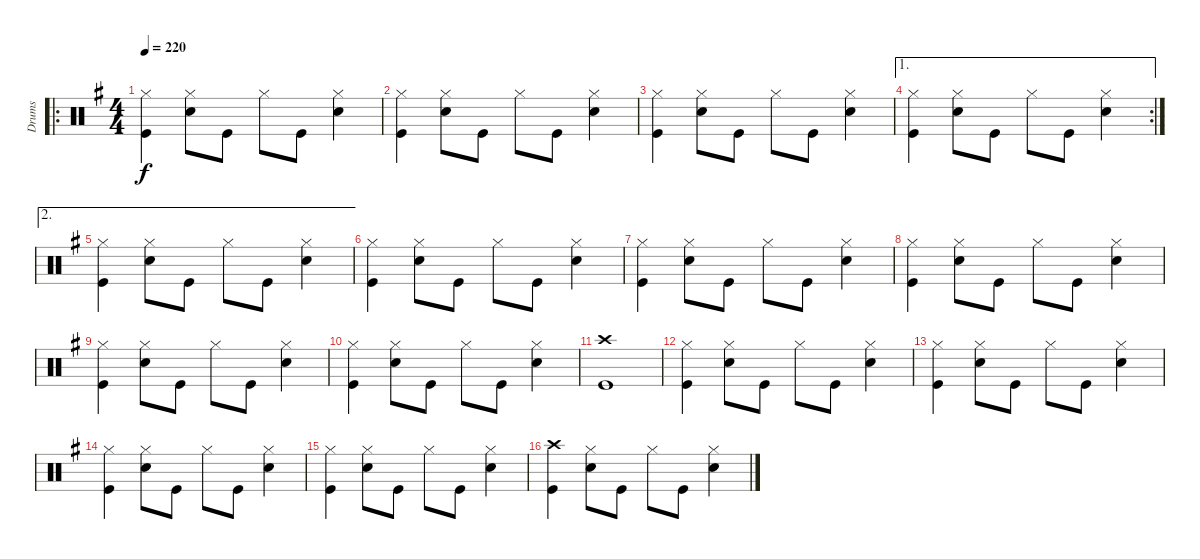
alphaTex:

\track ("Drums" "Drums") {instrument percussion}
\staff {score}
\articulation defaults
\ro
\ts (4 4)
\tempo 220
\clef neutral
\ks g
("Hi-Hat (closed)" "Kick (hit)").4{dy f} ("Hi-Hat (closed)" "Snare (hit) 2").8 "Kick (hit)".8 "Hi-Hat (closed)".8 "Kick (hit)".8 ("Hi-Hat (closed)" "Snare (hit) 2").4 |
("Hi-Hat (closed)" "Kick (hit)").4 ("Hi-Hat (closed)" "Snare (hit) 2").8 "Kick (hit)".8 "Hi-Hat (closed)".8 "Kick (hit)".8 ("Hi-Hat (closed)" "Snare (hit) 2").4 |
("Hi-Hat (closed)" "Kick (hit)").4 ("Hi-Hat (closed)" "Snare (hit) 2").8 "Kick (hit)".8 "Hi-Hat (closed)".8 "Kick (hit)".8 ("Hi-Hat (closed)" "Snare (hit) 2").4 |
\ae 1
\rc 2
("Hi-Hat (closed)" "Kick (hit)").4 ("Hi-Hat (closed)" "Snare (hit) 2").8 "Kick (hit)".8 "Hi-Hat (closed)".8 "Kick (hit)".8 ("Hi-Hat (closed)" "Snare (hit) 2").4 |
\ae 2
("Hi-Hat (closed)" "Kick (hit)").4 ("Hi-Hat (closed)" "Snare (hit) 2").8 "Kick (hit)".8 "Hi-Hat (closed)".8 "Kick (hit)".8 ("Hi-Hat (closed)" "Snare (hit) 2").4 |
("Hi-Hat (closed)" "Kick (hit)").4 ("Hi-Hat (closed)" "Snare (hit) 2").8 "Kick (hit)".8 "Hi-Hat (closed)".8 "Kick (hit)".8 ("Hi-Hat (closed)" "Snare (hit) 2").4 |
("Hi-Hat (closed)" "Kick (hit)").4 ("Hi-Hat (closed)" "Snare (hit) 2").8 "Kick (hit)".8 "Hi-Hat (closed)".8 "Kick (hit)".8 ("Hi-Hat (closed)" "Snare (hit) 2").4 |
("Hi-Hat (closed)" "Kick (hit)").4 ("Hi-Hat (closed)" "Snare (hit) 2").8 "Kick (hit)".8 "Hi-Hat (closed)".8 "Kick (hit)".8 ("Hi-Hat (closed)" "Snare (hit) 2").4 |
("Hi-Hat (closed)" "Kick (hit)").4 ("Hi-Hat (closed)" "Snare (hit) 2").8 "Kick (hit)".8 "Hi-Hat (closed)".8 "Kick (hit)".8 ("Hi-Hat (closed)" "Snare (hit) 2").4 |
("Hi-Hat (closed)" "Kick (hit)").4 ("Hi-Hat (closed)" "Snare (hit) 2").8 "Kick (hit)".8 "Hi-Hat (closed)".8 "Kick (hit)".8 ("Hi-Hat (closed)" "Snare (hit) 2").4 |
("Crash high (hit)" "Kick (hit)").1 |
("Hi-Hat (closed)" "Kick (hit)").4 ("Hi-Hat (closed)" "Snare (hit) 2").8 "Kick (hit)".8 "Hi-Hat (closed)".8 "Kick (hit)".8 ("Hi-Hat (closed)" "Snare (hit) 2").4 |
("Hi-Hat (closed)" "Kick (hit)").4 ("Hi-Hat (closed)" "Snare (hit) 2").8 "Kick (hit)".8 "Hi-Hat (closed)".8 "Kick (hit)".8 ("Hi-Hat (closed)" "Snare (hit) 2").4 |
("Hi-Hat (closed)" "Kick (hit)").4 ("Hi-Hat (closed)" "Snare (hit) 2").8 "Kick (hit)".8 "Hi-Hat (closed)".8 "Kick (hit)".8 ("Hi-Hat (closed)" "Snare (hit) 2").4 |
("Hi-Hat (closed)" "Kick (hit)").4 ("Hi-Hat (closed)" "Snare (hit) 2").8 "Kick (hit)".8 "Hi-Hat (closed)".8 "Kick (hit)".8 ("Hi-Hat (closed)" "Snare (hit) 2").4 |
("Crash high (hit)" "Kick (hit)").4 ("Hi-Hat (closed)" "Snare (hit) 2").8 "Kick (hit)".8 "Hi-Hat (closed)".8 "Kick (hit)".8 ("Hi-Hat (closed)" "Snare (hit) 2").4
